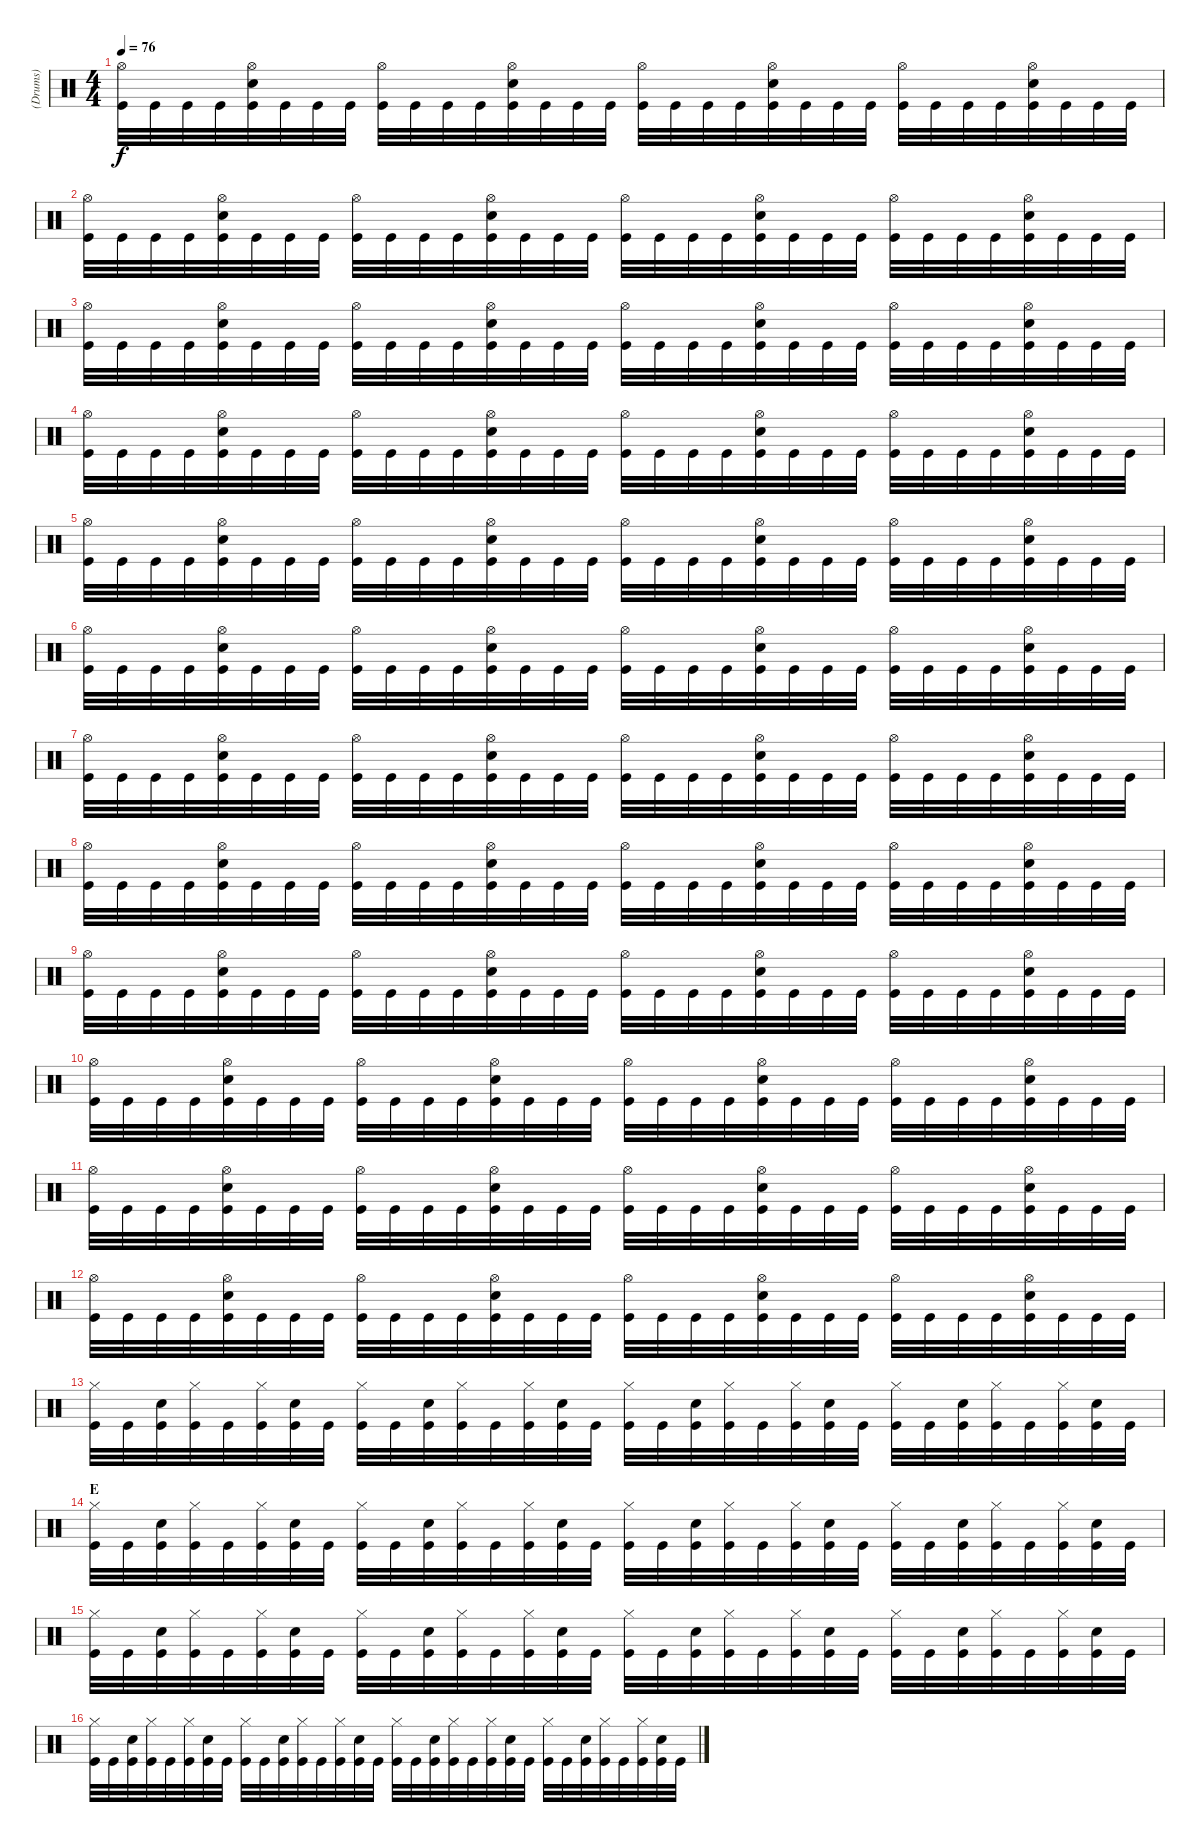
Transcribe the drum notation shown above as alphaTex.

\track ("(Drums)" "(Drums)") {instrument percussion}
\staff {score}
\articulation defaults
\ts (4 4)
\tempo 76
\clef neutral
\ks c
("Hi-Hat (open)" "Kick (hit)").32{dy f} "Kick (hit)".32 "Kick (hit)".32 "Kick (hit)".32 ("Hi-Hat (open)" "Electric Snare (hit)" "Kick (hit)").32 "Kick (hit)".32 "Kick (hit)".32 "Kick (hit)".32 ("Hi-Hat (open)" "Kick (hit)").32 "Kick (hit)".32 "Kick (hit)".32 "Kick (hit)".32 ("Hi-Hat (open)" "Electric Snare (hit)" "Kick (hit)").32 "Kick (hit)".32 "Kick (hit)".32 "Kick (hit)".32 ("Hi-Hat (open)" "Kick (hit)").32 "Kick (hit)".32 "Kick (hit)".32 "Kick (hit)".32 ("Hi-Hat (open)" "Electric Snare (hit)" "Kick (hit)").32 "Kick (hit)".32 "Kick (hit)".32 "Kick (hit)".32 ("Hi-Hat (open)" "Kick (hit)").32 "Kick (hit)".32 "Kick (hit)".32 "Kick (hit)".32 ("Hi-Hat (open)" "Electric Snare (hit)" "Kick (hit)").32 "Kick (hit)".32 "Kick (hit)".32 "Kick (hit)".32 |
("Hi-Hat (open)" "Kick (hit)").32 "Kick (hit)".32 "Kick (hit)".32 "Kick (hit)".32 ("Hi-Hat (open)" "Electric Snare (hit)" "Kick (hit)").32 "Kick (hit)".32 "Kick (hit)".32 "Kick (hit)".32 ("Hi-Hat (open)" "Kick (hit)").32 "Kick (hit)".32 "Kick (hit)".32 "Kick (hit)".32 ("Hi-Hat (open)" "Electric Snare (hit)" "Kick (hit)").32 "Kick (hit)".32 "Kick (hit)".32 "Kick (hit)".32 ("Hi-Hat (open)" "Kick (hit)").32 "Kick (hit)".32 "Kick (hit)".32 "Kick (hit)".32 ("Hi-Hat (open)" "Electric Snare (hit)" "Kick (hit)").32 "Kick (hit)".32 "Kick (hit)".32 "Kick (hit)".32 ("Hi-Hat (open)" "Kick (hit)").32 "Kick (hit)".32 "Kick (hit)".32 "Kick (hit)".32 ("Hi-Hat (open)" "Electric Snare (hit)" "Kick (hit)").32 "Kick (hit)".32 "Kick (hit)".32 "Kick (hit)".32 |
("Hi-Hat (open)" "Kick (hit)").32 "Kick (hit)".32 "Kick (hit)".32 "Kick (hit)".32 ("Hi-Hat (open)" "Electric Snare (hit)" "Kick (hit)").32 "Kick (hit)".32 "Kick (hit)".32 "Kick (hit)".32 ("Hi-Hat (open)" "Kick (hit)").32 "Kick (hit)".32 "Kick (hit)".32 "Kick (hit)".32 ("Hi-Hat (open)" "Electric Snare (hit)" "Kick (hit)").32 "Kick (hit)".32 "Kick (hit)".32 "Kick (hit)".32 ("Hi-Hat (open)" "Kick (hit)").32 "Kick (hit)".32 "Kick (hit)".32 "Kick (hit)".32 ("Hi-Hat (open)" "Electric Snare (hit)" "Kick (hit)").32 "Kick (hit)".32 "Kick (hit)".32 "Kick (hit)".32 ("Hi-Hat (open)" "Kick (hit)").32 "Kick (hit)".32 "Kick (hit)".32 "Kick (hit)".32 ("Hi-Hat (open)" "Electric Snare (hit)" "Kick (hit)").32 "Kick (hit)".32 "Kick (hit)".32 "Kick (hit)".32 |
("Hi-Hat (open)" "Kick (hit)").32 "Kick (hit)".32 "Kick (hit)".32 "Kick (hit)".32 ("Hi-Hat (open)" "Electric Snare (hit)" "Kick (hit)").32 "Kick (hit)".32 "Kick (hit)".32 "Kick (hit)".32 ("Hi-Hat (open)" "Kick (hit)").32 "Kick (hit)".32 "Kick (hit)".32 "Kick (hit)".32 ("Hi-Hat (open)" "Electric Snare (hit)" "Kick (hit)").32 "Kick (hit)".32 "Kick (hit)".32 "Kick (hit)".32 ("Hi-Hat (open)" "Kick (hit)").32 "Kick (hit)".32 "Kick (hit)".32 "Kick (hit)".32 ("Hi-Hat (open)" "Electric Snare (hit)" "Kick (hit)").32 "Kick (hit)".32 "Kick (hit)".32 "Kick (hit)".32 ("Hi-Hat (open)" "Kick (hit)").32 "Kick (hit)".32 "Kick (hit)".32 "Kick (hit)".32 ("Hi-Hat (open)" "Electric Snare (hit)" "Kick (hit)").32 "Kick (hit)".32 "Kick (hit)".32 "Kick (hit)".32 |
("Hi-Hat (open)" "Kick (hit)").32 "Kick (hit)".32 "Kick (hit)".32 "Kick (hit)".32 ("Hi-Hat (open)" "Electric Snare (hit)" "Kick (hit)").32 "Kick (hit)".32 "Kick (hit)".32 "Kick (hit)".32 ("Hi-Hat (open)" "Kick (hit)").32 "Kick (hit)".32 "Kick (hit)".32 "Kick (hit)".32 ("Hi-Hat (open)" "Electric Snare (hit)" "Kick (hit)").32 "Kick (hit)".32 "Kick (hit)".32 "Kick (hit)".32 ("Hi-Hat (open)" "Kick (hit)").32 "Kick (hit)".32 "Kick (hit)".32 "Kick (hit)".32 ("Hi-Hat (open)" "Electric Snare (hit)" "Kick (hit)").32 "Kick (hit)".32 "Kick (hit)".32 "Kick (hit)".32 ("Hi-Hat (open)" "Kick (hit)").32 "Kick (hit)".32 "Kick (hit)".32 "Kick (hit)".32 ("Hi-Hat (open)" "Electric Snare (hit)" "Kick (hit)").32 "Kick (hit)".32 "Kick (hit)".32 "Kick (hit)".32 |
("Hi-Hat (open)" "Kick (hit)").32 "Kick (hit)".32 "Kick (hit)".32 "Kick (hit)".32 ("Hi-Hat (open)" "Electric Snare (hit)" "Kick (hit)").32 "Kick (hit)".32 "Kick (hit)".32 "Kick (hit)".32 ("Hi-Hat (open)" "Kick (hit)").32 "Kick (hit)".32 "Kick (hit)".32 "Kick (hit)".32 ("Hi-Hat (open)" "Electric Snare (hit)" "Kick (hit)").32 "Kick (hit)".32 "Kick (hit)".32 "Kick (hit)".32 ("Hi-Hat (open)" "Kick (hit)").32 "Kick (hit)".32 "Kick (hit)".32 "Kick (hit)".32 ("Hi-Hat (open)" "Electric Snare (hit)" "Kick (hit)").32 "Kick (hit)".32 "Kick (hit)".32 "Kick (hit)".32 ("Hi-Hat (open)" "Kick (hit)").32 "Kick (hit)".32 "Kick (hit)".32 "Kick (hit)".32 ("Hi-Hat (open)" "Electric Snare (hit)" "Kick (hit)").32 "Kick (hit)".32 "Kick (hit)".32 "Kick (hit)".32 |
("Hi-Hat (open)" "Kick (hit)").32 "Kick (hit)".32 "Kick (hit)".32 "Kick (hit)".32 ("Hi-Hat (open)" "Electric Snare (hit)" "Kick (hit)").32 "Kick (hit)".32 "Kick (hit)".32 "Kick (hit)".32 ("Hi-Hat (open)" "Kick (hit)").32 "Kick (hit)".32 "Kick (hit)".32 "Kick (hit)".32 ("Hi-Hat (open)" "Electric Snare (hit)" "Kick (hit)").32 "Kick (hit)".32 "Kick (hit)".32 "Kick (hit)".32 ("Hi-Hat (open)" "Kick (hit)").32 "Kick (hit)".32 "Kick (hit)".32 "Kick (hit)".32 ("Hi-Hat (open)" "Electric Snare (hit)" "Kick (hit)").32 "Kick (hit)".32 "Kick (hit)".32 "Kick (hit)".32 ("Hi-Hat (open)" "Kick (hit)").32 "Kick (hit)".32 "Kick (hit)".32 "Kick (hit)".32 ("Hi-Hat (open)" "Electric Snare (hit)" "Kick (hit)").32 "Kick (hit)".32 "Kick (hit)".32 "Kick (hit)".32 |
("Hi-Hat (open)" "Kick (hit)").32 "Kick (hit)".32 "Kick (hit)".32 "Kick (hit)".32 ("Hi-Hat (open)" "Electric Snare (hit)" "Kick (hit)").32 "Kick (hit)".32 "Kick (hit)".32 "Kick (hit)".32 ("Hi-Hat (open)" "Kick (hit)").32 "Kick (hit)".32 "Kick (hit)".32 "Kick (hit)".32 ("Hi-Hat (open)" "Electric Snare (hit)" "Kick (hit)").32 "Kick (hit)".32 "Kick (hit)".32 "Kick (hit)".32 ("Hi-Hat (open)" "Kick (hit)").32 "Kick (hit)".32 "Kick (hit)".32 "Kick (hit)".32 ("Hi-Hat (open)" "Electric Snare (hit)" "Kick (hit)").32 "Kick (hit)".32 "Kick (hit)".32 "Kick (hit)".32 ("Hi-Hat (open)" "Kick (hit)").32 "Kick (hit)".32 "Kick (hit)".32 "Kick (hit)".32 ("Hi-Hat (open)" "Electric Snare (hit)" "Kick (hit)").32 "Kick (hit)".32 "Kick (hit)".32 "Kick (hit)".32 |
("Hi-Hat (open)" "Kick (hit)").32 "Kick (hit)".32 "Kick (hit)".32 "Kick (hit)".32 ("Hi-Hat (open)" "Electric Snare (hit)" "Kick (hit)").32 "Kick (hit)".32 "Kick (hit)".32 "Kick (hit)".32 ("Hi-Hat (open)" "Kick (hit)").32 "Kick (hit)".32 "Kick (hit)".32 "Kick (hit)".32 ("Hi-Hat (open)" "Electric Snare (hit)" "Kick (hit)").32 "Kick (hit)".32 "Kick (hit)".32 "Kick (hit)".32 ("Hi-Hat (open)" "Kick (hit)").32 "Kick (hit)".32 "Kick (hit)".32 "Kick (hit)".32 ("Hi-Hat (open)" "Electric Snare (hit)" "Kick (hit)").32 "Kick (hit)".32 "Kick (hit)".32 "Kick (hit)".32 ("Hi-Hat (open)" "Kick (hit)").32 "Kick (hit)".32 "Kick (hit)".32 "Kick (hit)".32 ("Hi-Hat (open)" "Electric Snare (hit)" "Kick (hit)").32 "Kick (hit)".32 "Kick (hit)".32 "Kick (hit)".32 |
("Hi-Hat (open)" "Kick (hit)").32 "Kick (hit)".32 "Kick (hit)".32 "Kick (hit)".32 ("Hi-Hat (open)" "Electric Snare (hit)" "Kick (hit)").32 "Kick (hit)".32 "Kick (hit)".32 "Kick (hit)".32 ("Hi-Hat (open)" "Kick (hit)").32 "Kick (hit)".32 "Kick (hit)".32 "Kick (hit)".32 ("Hi-Hat (open)" "Electric Snare (hit)" "Kick (hit)").32 "Kick (hit)".32 "Kick (hit)".32 "Kick (hit)".32 ("Hi-Hat (open)" "Kick (hit)").32 "Kick (hit)".32 "Kick (hit)".32 "Kick (hit)".32 ("Hi-Hat (open)" "Electric Snare (hit)" "Kick (hit)").32 "Kick (hit)".32 "Kick (hit)".32 "Kick (hit)".32 ("Hi-Hat (open)" "Kick (hit)").32 "Kick (hit)".32 "Kick (hit)".32 "Kick (hit)".32 ("Hi-Hat (open)" "Electric Snare (hit)" "Kick (hit)").32 "Kick (hit)".32 "Kick (hit)".32 "Kick (hit)".32 |
("Hi-Hat (open)" "Kick (hit)").32 "Kick (hit)".32 "Kick (hit)".32 "Kick (hit)".32 ("Hi-Hat (open)" "Electric Snare (hit)" "Kick (hit)").32 "Kick (hit)".32 "Kick (hit)".32 "Kick (hit)".32 ("Hi-Hat (open)" "Kick (hit)").32 "Kick (hit)".32 "Kick (hit)".32 "Kick (hit)".32 ("Hi-Hat (open)" "Electric Snare (hit)" "Kick (hit)").32 "Kick (hit)".32 "Kick (hit)".32 "Kick (hit)".32 ("Hi-Hat (open)" "Kick (hit)").32 "Kick (hit)".32 "Kick (hit)".32 "Kick (hit)".32 ("Hi-Hat (open)" "Electric Snare (hit)" "Kick (hit)").32 "Kick (hit)".32 "Kick (hit)".32 "Kick (hit)".32 ("Hi-Hat (open)" "Kick (hit)").32 "Kick (hit)".32 "Kick (hit)".32 "Kick (hit)".32 ("Hi-Hat (open)" "Electric Snare (hit)" "Kick (hit)").32 "Kick (hit)".32 "Kick (hit)".32 "Kick (hit)".32 |
("Hi-Hat (open)" "Kick (hit)").32 "Kick (hit)".32 "Kick (hit)".32 "Kick (hit)".32 ("Hi-Hat (open)" "Electric Snare (hit)" "Kick (hit)").32 "Kick (hit)".32 "Kick (hit)".32 "Kick (hit)".32 ("Hi-Hat (open)" "Kick (hit)").32 "Kick (hit)".32 "Kick (hit)".32 "Kick (hit)".32 ("Hi-Hat (open)" "Electric Snare (hit)" "Kick (hit)").32 "Kick (hit)".32 "Kick (hit)".32 "Kick (hit)".32 ("Hi-Hat (open)" "Kick (hit)").32 "Kick (hit)".32 "Kick (hit)".32 "Kick (hit)".32 ("Hi-Hat (open)" "Electric Snare (hit)" "Kick (hit)").32 "Kick (hit)".32 "Kick (hit)".32 "Kick (hit)".32 ("Hi-Hat (open)" "Kick (hit)").32 "Kick (hit)".32 "Kick (hit)".32 "Kick (hit)".32 ("Hi-Hat (open)" "Electric Snare (hit)" "Kick (hit)").32 "Kick (hit)".32 "Kick (hit)".32 "Kick (hit)".32 |
("Hi-Hat (closed)" "Kick (hit)").32 "Kick (hit)".32 ("Electric Snare (hit)" "Kick (hit)").32 ("Hi-Hat (closed)" "Kick (hit)").32 "Kick (hit)".32 ("Hi-Hat (closed)" "Kick (hit)").32 ("Electric Snare (hit)" "Kick (hit)").32 "Kick (hit)".32 ("Hi-Hat (closed)" "Kick (hit)").32 "Kick (hit)".32 ("Electric Snare (hit)" "Kick (hit)").32 ("Hi-Hat (closed)" "Kick (hit)").32 "Kick (hit)".32 ("Hi-Hat (closed)" "Kick (hit)").32 ("Electric Snare (hit)" "Kick (hit)").32 "Kick (hit)".32 ("Hi-Hat (closed)" "Kick (hit)").32 "Kick (hit)".32 ("Electric Snare (hit)" "Kick (hit)").32 ("Hi-Hat (closed)" "Kick (hit)").32 "Kick (hit)".32 ("Hi-Hat (closed)" "Kick (hit)").32 ("Electric Snare (hit)" "Kick (hit)").32 "Kick (hit)".32 ("Hi-Hat (closed)" "Kick (hit)").32 "Kick (hit)".32 ("Electric Snare (hit)" "Kick (hit)").32 ("Hi-Hat (closed)" "Kick (hit)").32 "Kick (hit)".32 ("Hi-Hat (closed)" "Kick (hit)").32 ("Electric Snare (hit)" "Kick (hit)").32 "Kick (hit)".32 |
\section ("" "E")
("Hi-Hat (closed)" "Kick (hit)").32 "Kick (hit)".32 ("Electric Snare (hit)" "Kick (hit)").32 ("Hi-Hat (closed)" "Kick (hit)").32 "Kick (hit)".32 ("Hi-Hat (closed)" "Kick (hit)").32 ("Electric Snare (hit)" "Kick (hit)").32 "Kick (hit)".32 ("Hi-Hat (closed)" "Kick (hit)").32 "Kick (hit)".32 ("Electric Snare (hit)" "Kick (hit)").32 ("Hi-Hat (closed)" "Kick (hit)").32 "Kick (hit)".32 ("Hi-Hat (closed)" "Kick (hit)").32 ("Electric Snare (hit)" "Kick (hit)").32 "Kick (hit)".32 ("Hi-Hat (closed)" "Kick (hit)").32 "Kick (hit)".32 ("Electric Snare (hit)" "Kick (hit)").32 ("Hi-Hat (closed)" "Kick (hit)").32 "Kick (hit)".32 ("Hi-Hat (closed)" "Kick (hit)").32 ("Electric Snare (hit)" "Kick (hit)").32 "Kick (hit)".32 ("Hi-Hat (closed)" "Kick (hit)").32 "Kick (hit)".32 ("Electric Snare (hit)" "Kick (hit)").32 ("Hi-Hat (closed)" "Kick (hit)").32 "Kick (hit)".32 ("Hi-Hat (closed)" "Kick (hit)").32 ("Electric Snare (hit)" "Kick (hit)").32 "Kick (hit)".32 |
("Hi-Hat (closed)" "Kick (hit)").32 "Kick (hit)".32 ("Electric Snare (hit)" "Kick (hit)").32 ("Hi-Hat (closed)" "Kick (hit)").32 "Kick (hit)".32 ("Hi-Hat (closed)" "Kick (hit)").32 ("Electric Snare (hit)" "Kick (hit)").32 "Kick (hit)".32 ("Hi-Hat (closed)" "Kick (hit)").32 "Kick (hit)".32 ("Electric Snare (hit)" "Kick (hit)").32 ("Hi-Hat (closed)" "Kick (hit)").32 "Kick (hit)".32 ("Hi-Hat (closed)" "Kick (hit)").32 ("Electric Snare (hit)" "Kick (hit)").32 "Kick (hit)".32 ("Hi-Hat (closed)" "Kick (hit)").32 "Kick (hit)".32 ("Electric Snare (hit)" "Kick (hit)").32 ("Hi-Hat (closed)" "Kick (hit)").32 "Kick (hit)".32 ("Hi-Hat (closed)" "Kick (hit)").32 ("Electric Snare (hit)" "Kick (hit)").32 "Kick (hit)".32 ("Hi-Hat (closed)" "Kick (hit)").32 "Kick (hit)".32 ("Electric Snare (hit)" "Kick (hit)").32 ("Hi-Hat (closed)" "Kick (hit)").32 "Kick (hit)".32 ("Hi-Hat (closed)" "Kick (hit)").32 ("Electric Snare (hit)" "Kick (hit)").32 "Kick (hit)".32 |
("Hi-Hat (closed)" "Kick (hit)").32 "Kick (hit)".32 ("Electric Snare (hit)" "Kick (hit)").32 ("Hi-Hat (closed)" "Kick (hit)").32 "Kick (hit)".32 ("Hi-Hat (closed)" "Kick (hit)").32 ("Electric Snare (hit)" "Kick (hit)").32 "Kick (hit)".32 ("Hi-Hat (closed)" "Kick (hit)").32 "Kick (hit)".32 ("Electric Snare (hit)" "Kick (hit)").32 ("Hi-Hat (closed)" "Kick (hit)").32 "Kick (hit)".32 ("Hi-Hat (closed)" "Kick (hit)").32 ("Electric Snare (hit)" "Kick (hit)").32 "Kick (hit)".32 ("Hi-Hat (closed)" "Kick (hit)").32 "Kick (hit)".32 ("Electric Snare (hit)" "Kick (hit)").32 ("Hi-Hat (closed)" "Kick (hit)").32 "Kick (hit)".32 ("Hi-Hat (closed)" "Kick (hit)").32 ("Electric Snare (hit)" "Kick (hit)").32 "Kick (hit)".32 ("Hi-Hat (closed)" "Kick (hit)").32 "Kick (hit)".32 ("Electric Snare (hit)" "Kick (hit)").32 ("Hi-Hat (closed)" "Kick (hit)").32 "Kick (hit)".32 ("Hi-Hat (closed)" "Kick (hit)").32 ("Electric Snare (hit)" "Kick (hit)").32 "Kick (hit)".32
